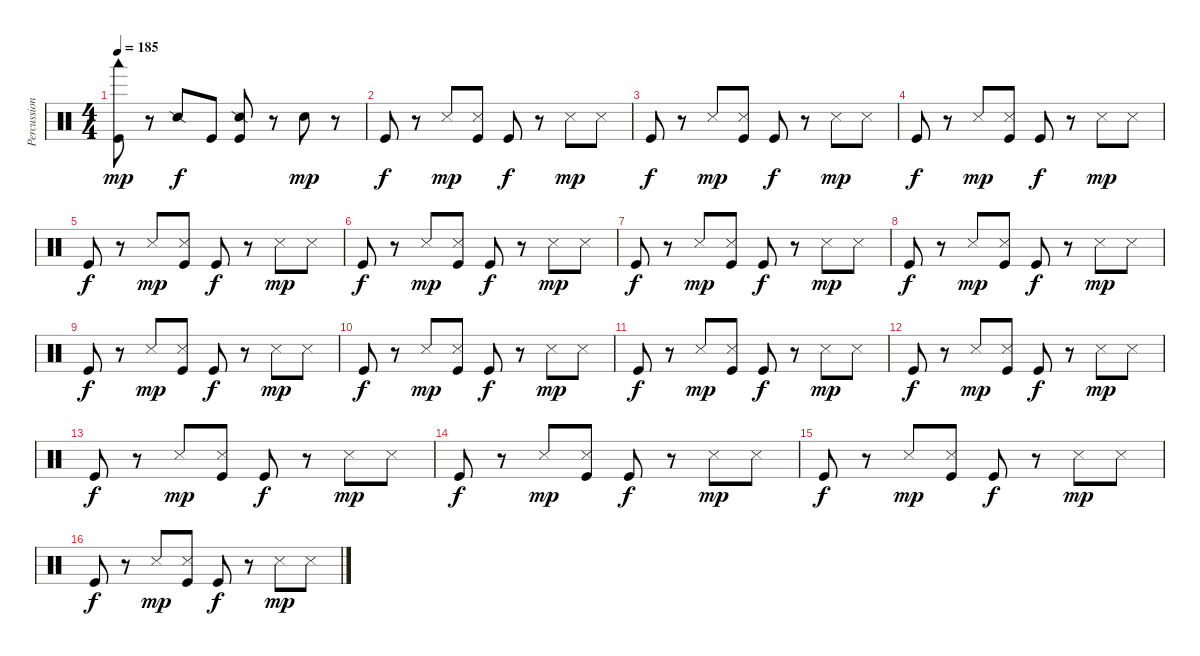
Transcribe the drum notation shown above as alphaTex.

\track ("Percussion" "Percussion") {instrument percussion}
\staff {score}
\articulation defaults
\ts (4 4)
\tempo 185
\clef neutral
\ks c
("Woodblock low (hit)" "Kick (hit)").8{dy mp} r.8 "Snare (side stick) 2".8{dy f} "Kick (hit)".8 ("Snare (side stick) 2" "Kick (hit)").8 r.8 "Electric Snare (hit)".8{dy mp} r.8 |
"Kick (hit)".8{dy f} r.8 "Metronome (hit)".8{dy mp} ("Metronome (hit)" "Kick (hit)").8 "Kick (hit)".8{dy f} r.8 "Snare (side stick) 3".8{dy mp} "Snare (side stick) 3".8 |
"Kick (hit)".8{dy f} r.8 "Metronome (hit)".8{dy mp} ("Metronome (hit)" "Kick (hit)").8 "Kick (hit)".8{dy f} r.8 "Snare (side stick) 3".8{dy mp} "Snare (side stick) 3".8 |
"Kick (hit)".8{dy f} r.8 "Metronome (hit)".8{dy mp} ("Metronome (hit)" "Kick (hit)").8 "Kick (hit)".8{dy f} r.8 "Snare (side stick) 3".8{dy mp} "Snare (side stick) 3".8 |
"Kick (hit)".8{dy f} r.8 "Metronome (hit)".8{dy mp} ("Metronome (hit)" "Kick (hit)").8 "Kick (hit)".8{dy f} r.8 "Snare (side stick) 3".8{dy mp} "Snare (side stick) 3".8 |
"Kick (hit)".8{dy f} r.8 "Metronome (hit)".8{dy mp} ("Metronome (hit)" "Kick (hit)").8 "Kick (hit)".8{dy f} r.8 "Snare (side stick) 3".8{dy mp} "Snare (side stick) 3".8 |
"Kick (hit)".8{dy f} r.8 "Metronome (hit)".8{dy mp} ("Metronome (hit)" "Kick (hit)").8 "Kick (hit)".8{dy f} r.8 "Snare (side stick) 3".8{dy mp} "Snare (side stick) 3".8 |
"Kick (hit)".8{dy f} r.8 "Metronome (hit)".8{dy mp} ("Metronome (hit)" "Kick (hit)").8 "Kick (hit)".8{dy f} r.8 "Snare (side stick) 3".8{dy mp} "Snare (side stick) 3".8 |
"Kick (hit)".8{dy f} r.8 "Metronome (hit)".8{dy mp} ("Metronome (hit)" "Kick (hit)").8 "Kick (hit)".8{dy f} r.8 "Snare (side stick) 3".8{dy mp} "Snare (side stick) 3".8 |
"Kick (hit)".8{dy f} r.8 "Metronome (hit)".8{dy mp} ("Metronome (hit)" "Kick (hit)").8 "Kick (hit)".8{dy f} r.8 "Snare (side stick) 3".8{dy mp} "Snare (side stick) 3".8 |
"Kick (hit)".8{dy f} r.8 "Metronome (hit)".8{dy mp} ("Metronome (hit)" "Kick (hit)").8 "Kick (hit)".8{dy f} r.8 "Snare (side stick) 3".8{dy mp} "Snare (side stick) 3".8 |
"Kick (hit)".8{dy f} r.8 "Metronome (hit)".8{dy mp} ("Metronome (hit)" "Kick (hit)").8 "Kick (hit)".8{dy f} r.8 "Snare (side stick) 3".8{dy mp} "Snare (side stick) 3".8 |
"Kick (hit)".8{dy f} r.8 "Metronome (hit)".8{dy mp} ("Metronome (hit)" "Kick (hit)").8 "Kick (hit)".8{dy f} r.8 "Snare (side stick) 3".8{dy mp} "Snare (side stick) 3".8 |
"Kick (hit)".8{dy f} r.8 "Metronome (hit)".8{dy mp} ("Metronome (hit)" "Kick (hit)").8 "Kick (hit)".8{dy f} r.8 "Snare (side stick) 3".8{dy mp} "Snare (side stick) 3".8 |
"Kick (hit)".8{dy f} r.8 "Metronome (hit)".8{dy mp} ("Metronome (hit)" "Kick (hit)").8 "Kick (hit)".8{dy f} r.8 "Snare (side stick) 3".8{dy mp} "Snare (side stick) 3".8 |
"Kick (hit)".8{dy f} r.8 "Metronome (hit)".8{dy mp} ("Metronome (hit)" "Kick (hit)").8 "Kick (hit)".8{dy f} r.8 "Snare (side stick) 3".8{dy mp} "Snare (side stick) 3".8
